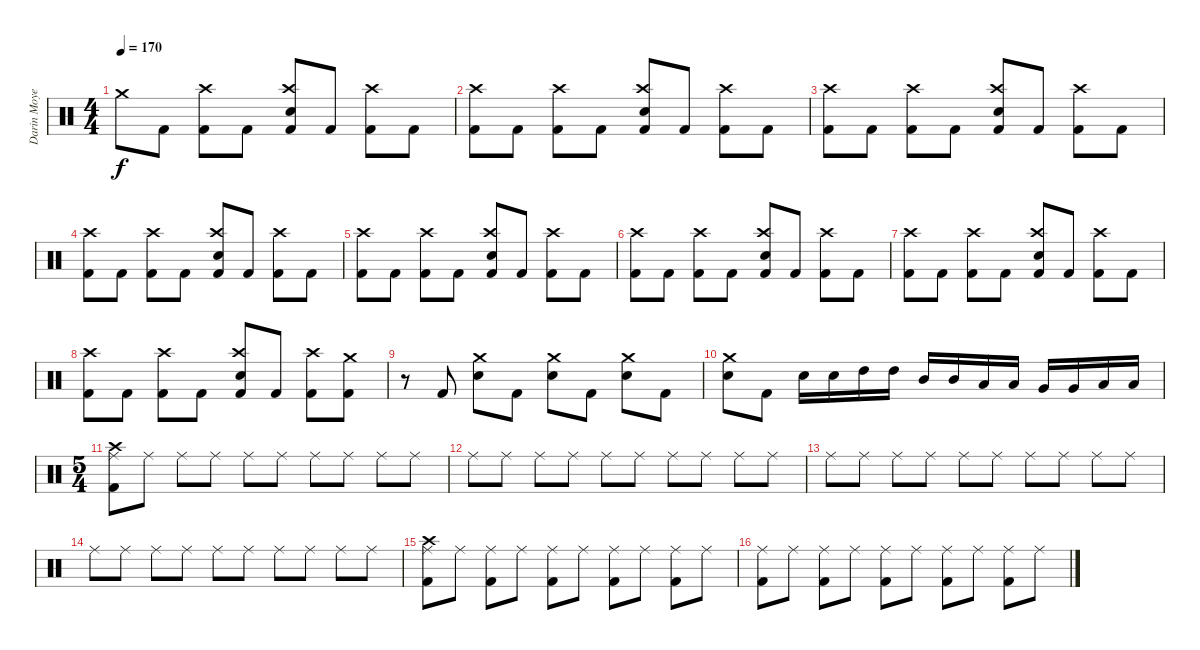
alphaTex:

\track ("Darin Moyen" "Darin Moye") {instrument percussion}
\staff {score}
\articulation defaults
\ts (4 4)
\tempo 170
\clef neutral
\ks c "Crash medium (hit)".8{dy f} "Kick (hit) 2".8
("Crash high (hit)" "Kick (hit) 2").8 "Kick (hit) 2".8 ("Crash high (hit)" "Electric Snare (hit)" "Kick (hit) 2").8 "Kick (hit) 2".8 ("Crash high (hit)" "Kick (hit) 2").8 "Kick (hit) 2".8 |
("Crash high (hit)" "Kick (hit) 2").8 "Kick (hit) 2".8 ("Crash high (hit)" "Kick (hit) 2").8 "Kick (hit) 2".8 ("Crash high (hit)" "Electric Snare (hit)" "Kick (hit) 2").8 "Kick (hit) 2".8 ("Crash high (hit)" "Kick (hit) 2").8 "Kick (hit) 2".8 |
("Crash high (hit)" "Kick (hit) 2").8 "Kick (hit) 2".8 ("Crash high (hit)" "Kick (hit) 2").8 "Kick (hit) 2".8 ("Crash high (hit)" "Electric Snare (hit)" "Kick (hit) 2").8 "Kick (hit) 2".8 ("Crash high (hit)" "Kick (hit) 2").8 "Kick (hit) 2".8 |
("Crash high (hit)" "Kick (hit) 2").8 "Kick (hit) 2".8 ("Crash high (hit)" "Kick (hit) 2").8 "Kick (hit) 2".8 ("Crash high (hit)" "Electric Snare (hit)" "Kick (hit) 2").8 "Kick (hit) 2".8 ("Crash high (hit)" "Kick (hit) 2").8 "Kick (hit) 2".8 |
("Crash high (hit)" "Kick (hit) 2").8 "Kick (hit) 2".8 ("Crash high (hit)" "Kick (hit) 2").8 "Kick (hit) 2".8 ("Crash high (hit)" "Electric Snare (hit)" "Kick (hit) 2").8 "Kick (hit) 2".8 ("Crash high (hit)" "Kick (hit) 2").8 "Kick (hit) 2".8 |
("Crash high (hit)" "Kick (hit) 2").8 "Kick (hit) 2".8 ("Crash high (hit)" "Kick (hit) 2").8 "Kick (hit) 2".8 ("Crash high (hit)" "Electric Snare (hit)" "Kick (hit) 2").8 "Kick (hit) 2".8 ("Crash high (hit)" "Kick (hit) 2").8 "Kick (hit) 2".8 |
("Crash high (hit)" "Kick (hit) 2").8 "Kick (hit) 2".8 ("Crash high (hit)" "Kick (hit) 2").8 "Kick (hit) 2".8 ("Crash high (hit)" "Electric Snare (hit)" "Kick (hit) 2").8 "Kick (hit) 2".8 ("Crash high (hit)" "Kick (hit) 2").8 "Kick (hit) 2".8 |
("Crash high (hit)" "Kick (hit) 2").8 "Kick (hit) 2".8 ("Crash high (hit)" "Kick (hit) 2").8 "Kick (hit) 2".8 ("Crash high (hit)" "Electric Snare (hit)" "Kick (hit) 2").8 "Kick (hit) 2".8 ("Crash high (hit)" "Kick (hit) 2").8 ("Crash medium (hit)" "Kick (hit) 2").8 |
r.8 "Kick (hit) 2".8 ("Crash medium (hit)" "Electric Snare (hit)").8 "Kick (hit) 2".8 ("Crash medium (hit)" "Electric Snare (hit)").8 "Kick (hit) 2".8 ("Crash medium (hit)" "Electric Snare (hit)").8 "Kick (hit) 2".8 |
("Crash medium (hit)" "Electric Snare (hit)").8 "Kick (hit) 2".8 "Electric Snare (hit)".16 "Electric Snare (hit)".16 "High Tom (hit)".16 "High Tom (hit)".16 "Mid Tom (hit)".16 "Mid Tom (hit)".16 "Low Tom (hit)".16 "Low Tom (hit)".16 "Very Low Tom (hit)".16 "Very Low Tom (hit)".16 "Low Floor Tom (hit)".16 "Low Floor Tom (hit)".16 |
\ts (5 4)
("Crash high (hit)" "Ride (middle)" "Kick (hit) 2").8 "Ride (middle)".8 "Ride (middle)".8 "Ride (middle)".8 "Ride (middle)".8 "Ride (middle)".8 "Ride (middle)".8 "Ride (middle)".8 "Ride (middle)".8 "Ride (middle)".8 |
"Ride (middle)".8 "Ride (middle)".8 "Ride (middle)".8 "Ride (middle)".8 "Ride (middle)".8 "Ride (middle)".8 "Ride (middle)".8 "Ride (middle)".8 "Ride (middle)".8 "Ride (middle)".8 |
"Ride (middle)".8 "Ride (middle)".8 "Ride (middle)".8 "Ride (middle)".8 "Ride (middle)".8 "Ride (middle)".8 "Ride (middle)".8 "Ride (middle)".8 "Ride (middle)".8 "Ride (middle)".8 |
"Ride (middle)".8 "Ride (middle)".8 "Ride (middle)".8 "Ride (middle)".8 "Ride (middle)".8 "Ride (middle)".8 "Ride (middle)".8 "Ride (middle)".8 "Ride (middle)".8 "Ride (middle)".8 |
("Crash high (hit)" "Ride (middle)" "Kick (hit) 2").8 "Ride (middle)".8 ("Ride (middle)" "Kick (hit) 2").8 "Ride (middle)".8 ("Ride (middle)" "Kick (hit) 2").8 "Ride (middle)".8 ("Ride (middle)" "Kick (hit) 2").8 "Ride (middle)".8 ("Ride (middle)" "Kick (hit) 2").8 "Ride (middle)".8 |
("Ride (middle)" "Kick (hit) 2").8 "Ride (middle)".8 ("Ride (middle)" "Kick (hit) 2").8 "Ride (middle)".8 ("Ride (middle)" "Kick (hit) 2").8 "Ride (middle)".8 ("Ride (middle)" "Kick (hit) 2").8 "Ride (middle)".8 ("Ride (middle)" "Kick (hit) 2").8 "Ride (middle)".8
